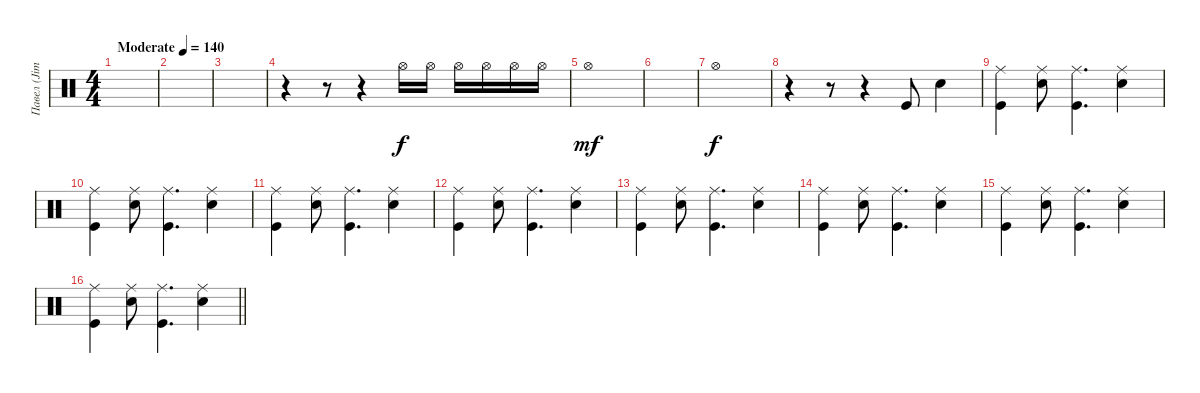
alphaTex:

\track ("Павел (Jimmy) Лохнин" "Павел (Jim") {instrument percussion}
\staff {score}
\articulation defaults
\ts (4 4)
\tempo (140 "Moderate")
\clef neutral
\ks c
|
|
|
r.4 r.8 r.4 "Hi-Hat (open)".16 "Hi-Hat (open)".16 "Hi-Hat (open)".16 "Hi-Hat (open)".16 "Hi-Hat (open)".16 "Hi-Hat (open)".16 |
"Hi-Hat (open)".1{dy mf} |
|
"Hi-Hat (open)".1{dy f} |
r.4 r.8 r.4 "Kick (hit)".8 "Snare (hit) 2".4 |
("Ride (middle)" "Kick (hit)").4 ("Ride (middle)" "Snare (hit) 2").8 ("Ride (middle)" "Kick (hit)").4{d} ("Ride (middle)" "Snare (hit) 2").4 |
("Ride (middle)" "Kick (hit)").4 ("Ride (middle)" "Snare (hit) 2").8 ("Ride (middle)" "Kick (hit)").4{d} ("Ride (middle)" "Snare (hit) 2").4 |
("Ride (middle)" "Kick (hit)").4 ("Ride (middle)" "Snare (hit) 2").8 ("Ride (middle)" "Kick (hit)").4{d} ("Ride (middle)" "Snare (hit) 2").4 |
("Ride (middle)" "Kick (hit)").4 ("Ride (middle)" "Snare (hit) 2").8 ("Ride (middle)" "Kick (hit)").4{d} ("Ride (middle)" "Snare (hit) 2").4 |
("Ride (middle)" "Kick (hit)").4 ("Ride (middle)" "Snare (hit) 2").8 ("Ride (middle)" "Kick (hit)").4{d} ("Ride (middle)" "Snare (hit) 2").4 |
("Ride (middle)" "Kick (hit)").4 ("Ride (middle)" "Snare (hit) 2").8 ("Ride (middle)" "Kick (hit)").4{d} ("Ride (middle)" "Snare (hit) 2").4 |
("Ride (middle)" "Kick (hit)").4 ("Ride (middle)" "Snare (hit) 2").8 ("Ride (middle)" "Kick (hit)").4{d} ("Ride (middle)" "Snare (hit) 2").4 |
\barLineRight lightlight
("Ride (middle)" "Kick (hit)").4 ("Ride (middle)" "Snare (hit) 2").8 ("Ride (middle)" "Kick (hit)").4{d} ("Ride (middle)" "Snare (hit) 2").4
